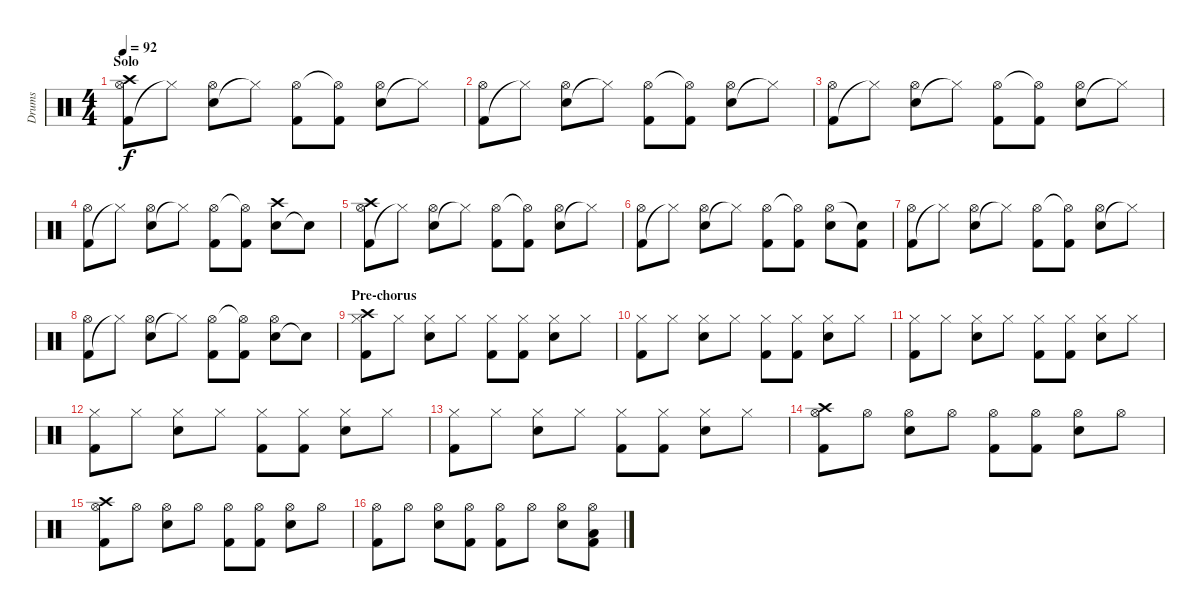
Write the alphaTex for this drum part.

\track ("Drums" "Drums") {instrument percussion}
\staff {score}
\articulation defaults
\ts (4 4)
\section ("" "Solo")
\tempo 92
\clef neutral
\ks c
("Kick (hit) 2" "Hi-Hat (open)" "Crash high (hit)").8{dy f} "Hi-Hat (closed)"{t}.8 ("Electric Snare (hit)" "Hi-Hat (open)").8 "Hi-Hat (closed)"{t}.8 ("Kick (hit) 2" "Hi-Hat (open)").8 ("Kick (hit) 2" "Hi-Hat (open)"{t}).8 ("Electric Snare (hit)" "Hi-Hat (open)").8 "Hi-Hat (closed)"{t}.8 |
("Kick (hit) 2" "Hi-Hat (open)").8 "Hi-Hat (closed)"{t}.8 ("Electric Snare (hit)" "Hi-Hat (open)").8 "Hi-Hat (closed)"{t}.8 ("Kick (hit) 2" "Hi-Hat (open)").8 ("Kick (hit) 2" "Hi-Hat (open)"{t}).8 ("Electric Snare (hit)" "Hi-Hat (open)").8 "Hi-Hat (closed)"{t}.8 |
("Kick (hit) 2" "Hi-Hat (open)").8 "Hi-Hat (closed)"{t}.8 ("Electric Snare (hit)" "Hi-Hat (open)").8 "Hi-Hat (closed)"{t}.8 ("Kick (hit) 2" "Hi-Hat (open)").8 ("Kick (hit) 2" "Hi-Hat (open)"{t}).8 ("Electric Snare (hit)" "Hi-Hat (open)").8 "Hi-Hat (closed)"{t}.8 |
("Kick (hit) 2" "Hi-Hat (open)").8 "Hi-Hat (closed)"{t}.8 ("Electric Snare (hit)" "Hi-Hat (open)").8 "Hi-Hat (closed)"{t}.8 ("Kick (hit) 2" "Hi-Hat (open)").8 ("Kick (hit) 2" "Hi-Hat (open)"{t}).8 ("Electric Snare (hit)" "Crash high (hit)").8 "Snare (hit)"{t}.8 |
("Kick (hit) 2" "Hi-Hat (open)" "Crash high (hit)").8 "Hi-Hat (closed)"{t}.8 ("Electric Snare (hit)" "Hi-Hat (open)").8 "Hi-Hat (closed)"{t}.8 ("Kick (hit) 2" "Hi-Hat (open)").8 ("Kick (hit) 2" "Hi-Hat (open)"{t}).8 ("Electric Snare (hit)" "Hi-Hat (open)").8 "Hi-Hat (closed)"{t}.8 |
("Kick (hit) 2" "Hi-Hat (open)").8 "Hi-Hat (closed)"{t}.8 ("Electric Snare (hit)" "Hi-Hat (open)").8 "Hi-Hat (closed)"{t}.8 ("Kick (hit) 2" "Hi-Hat (open)").8 ("Kick (hit) 2" "Hi-Hat (open)"{t}).8 ("Electric Snare (hit)" "Hi-Hat (open)").8 ("Kick (hit) 2" "Snare (hit)"{t}).8 |
("Kick (hit) 2" "Hi-Hat (open)").8 "Hi-Hat (closed)"{t}.8 ("Electric Snare (hit)" "Hi-Hat (open)").8 "Hi-Hat (closed)"{t}.8 ("Kick (hit) 2" "Hi-Hat (open)").8 ("Kick (hit) 2" "Hi-Hat (open)"{t}).8 ("Electric Snare (hit)" "Hi-Hat (open)").8 "Hi-Hat (closed)"{t}.8 |
("Kick (hit) 2" "Hi-Hat (open)").8 "Hi-Hat (closed)"{t}.8 ("Electric Snare (hit)" "Hi-Hat (open)").8 "Hi-Hat (closed)"{t}.8 ("Kick (hit) 2" "Hi-Hat (open)").8 ("Kick (hit) 2" "Hi-Hat (open)"{t}).8 ("Electric Snare (hit)" "Hi-Hat (open)").8 "Snare (hit)"{t}.8 |
\section ("" "Pre-chorus")
("Kick (hit) 2" "Hi-Hat (closed)" "Crash high (hit)").8 "Hi-Hat (closed)".8 ("Electric Snare (hit)" "Hi-Hat (closed)").8 "Hi-Hat (closed)".8 ("Kick (hit) 2" "Hi-Hat (closed)").8 ("Kick (hit) 2" "Hi-Hat (closed)").8 ("Electric Snare (hit)" "Hi-Hat (closed)").8 "Hi-Hat (closed)".8 |
("Kick (hit) 2" "Hi-Hat (closed)").8 "Hi-Hat (closed)".8 ("Electric Snare (hit)" "Hi-Hat (closed)").8 "Hi-Hat (closed)".8 ("Kick (hit) 2" "Hi-Hat (closed)").8 ("Kick (hit) 2" "Hi-Hat (closed)").8 ("Electric Snare (hit)" "Hi-Hat (closed)").8 "Hi-Hat (closed)".8 |
("Kick (hit) 2" "Hi-Hat (closed)").8 "Hi-Hat (closed)".8 ("Electric Snare (hit)" "Hi-Hat (closed)").8 "Hi-Hat (closed)".8 ("Kick (hit) 2" "Hi-Hat (closed)").8 ("Kick (hit) 2" "Hi-Hat (closed)").8 ("Electric Snare (hit)" "Hi-Hat (closed)").8 "Hi-Hat (closed)".8 |
("Kick (hit) 2" "Hi-Hat (closed)").8 "Hi-Hat (closed)".8 ("Electric Snare (hit)" "Hi-Hat (closed)").8 "Hi-Hat (closed)".8 ("Kick (hit) 2" "Hi-Hat (closed)").8 ("Kick (hit) 2" "Hi-Hat (closed)").8 ("Electric Snare (hit)" "Hi-Hat (closed)").8 "Hi-Hat (closed)".8 |
("Kick (hit) 2" "Hi-Hat (closed)").8 "Hi-Hat (closed)".8 ("Electric Snare (hit)" "Hi-Hat (closed)").8 "Hi-Hat (closed)".8 ("Kick (hit) 2" "Hi-Hat (closed)").8 ("Kick (hit) 2" "Hi-Hat (closed)").8 ("Electric Snare (hit)" "Hi-Hat (closed)").8 "Hi-Hat (closed)".8 |
("Kick (hit) 2" "Hi-Hat (open)" "Crash high (hit)").8 "Hi-Hat (open)".8 ("Electric Snare (hit)" "Hi-Hat (open)").8 "Hi-Hat (open)".8 ("Kick (hit) 2" "Hi-Hat (open)").8 ("Kick (hit) 2" "Hi-Hat (open)").8 ("Electric Snare (hit)" "Hi-Hat (open)").8 "Hi-Hat (open)".8 |
("Kick (hit) 2" "Hi-Hat (open)" "Crash high (hit)").8 "Hi-Hat (open)".8 ("Electric Snare (hit)" "Hi-Hat (open)").8 "Hi-Hat (open)".8 ("Kick (hit) 2" "Hi-Hat (open)").8 ("Kick (hit) 2" "Hi-Hat (open)").8 ("Electric Snare (hit)" "Hi-Hat (open)").8 "Hi-Hat (open)".8 |
("Kick (hit) 2" "Hi-Hat (open)").8 "Hi-Hat (open)".8 ("Electric Snare (hit)" "Hi-Hat (open)").8 ("Kick (hit) 2" "Hi-Hat (open)").8 ("Kick (hit) 2" "Hi-Hat (open)").8 "Hi-Hat (open)".8 ("Electric Snare (hit)" "Hi-Hat (open)").8 ("Kick (hit) 2" "Hi-Hat (open)" "Low Tom (hit)").8
